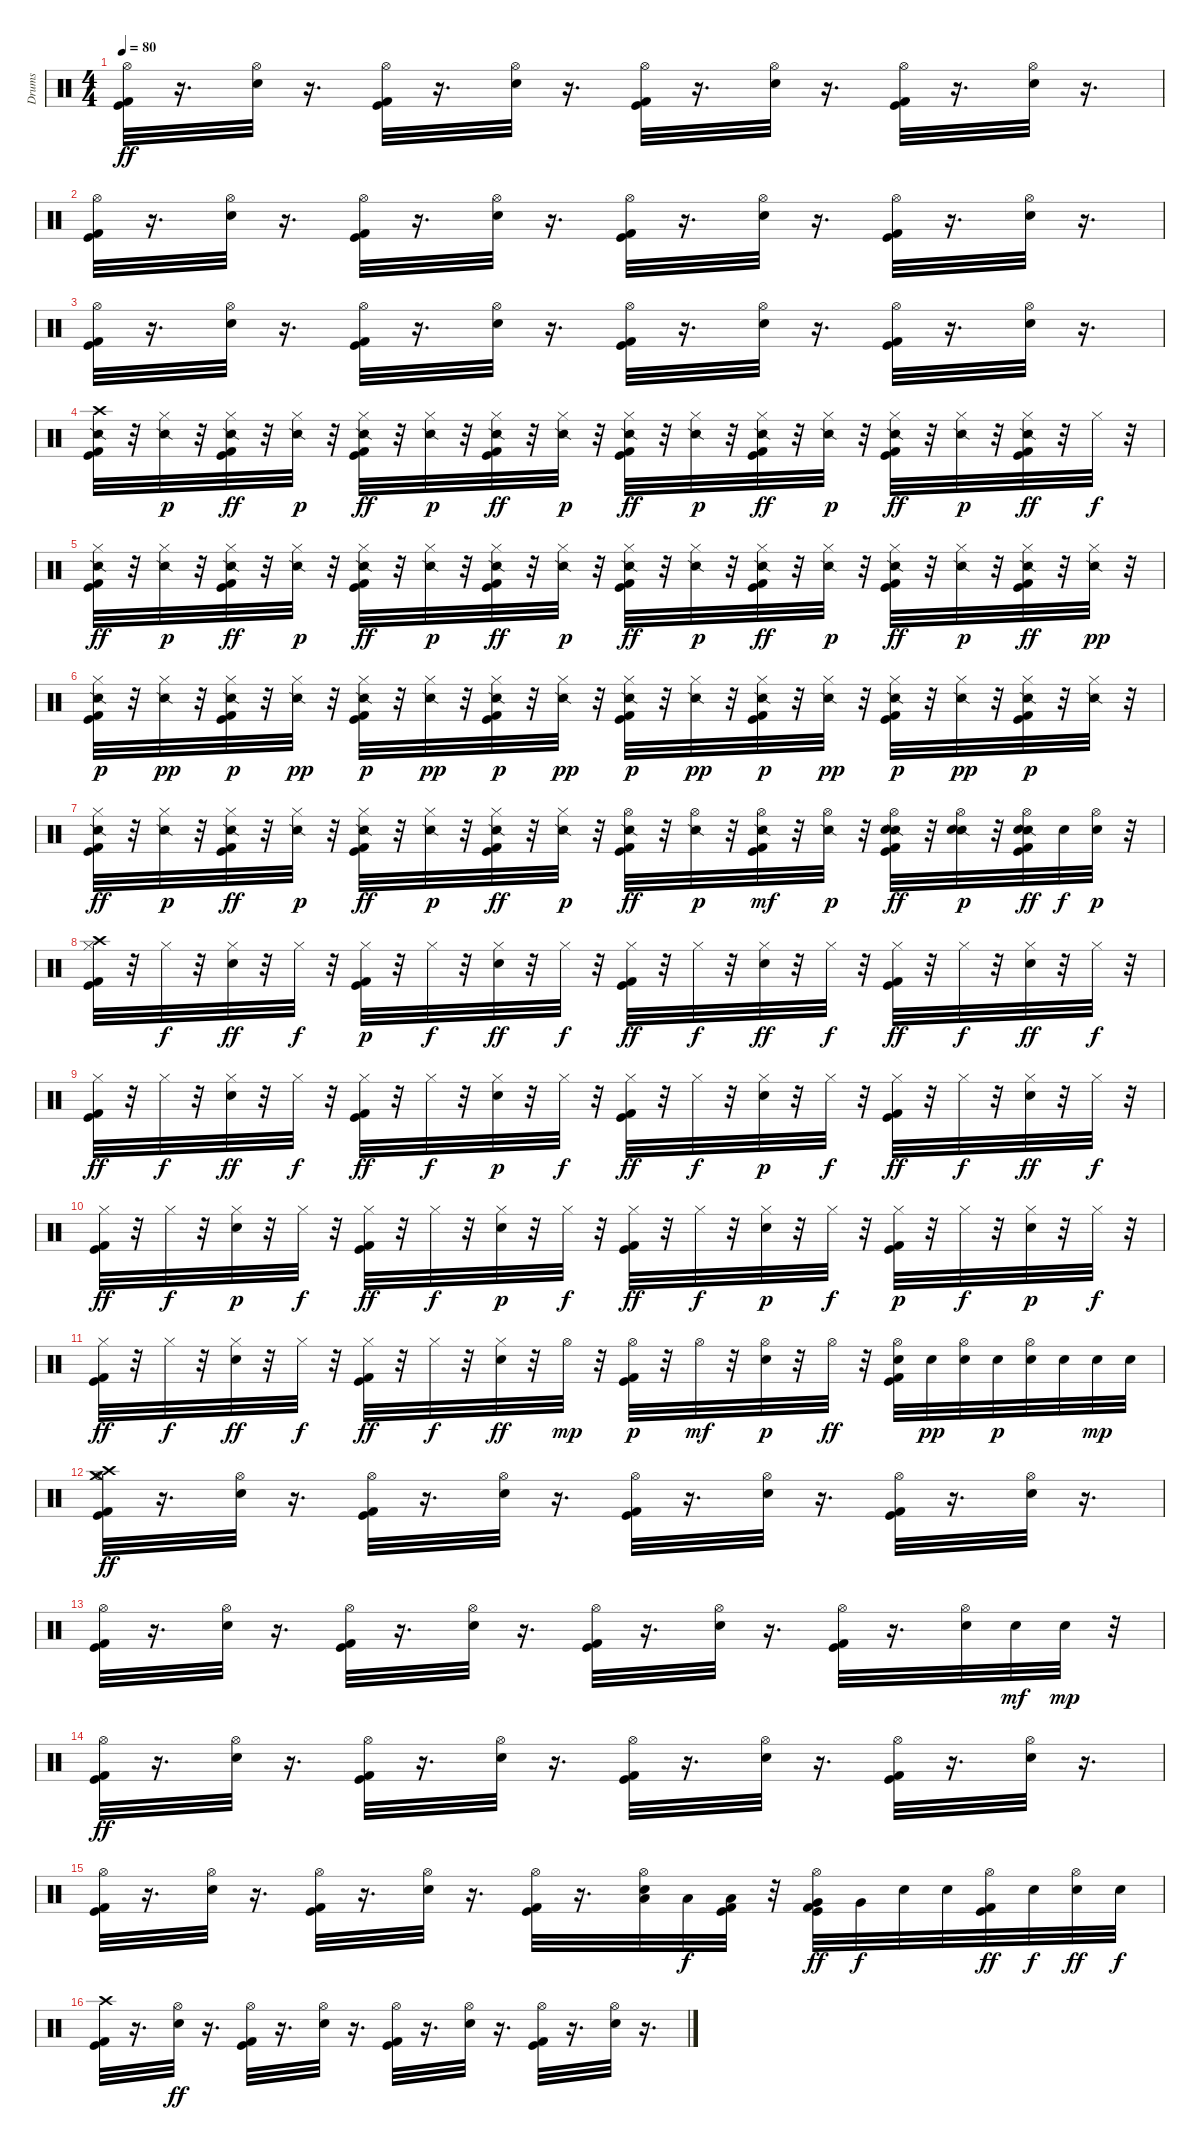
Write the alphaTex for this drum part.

\track ("Drums" "Drums") {instrument percussion}
\staff {score}
\articulation defaults
\ts (4 4)
\tempo 80
\clef neutral
\ks c
("Kick (hit)" "Hi-Hat (open)" "Kick (hit) 2").32{dy ff} r.16{d} ("Hi-Hat (open)" "Electric Snare (hit)").32 r.16{d} ("Hi-Hat (open)" "Kick (hit) 2" "Kick (hit)").32 r.16{d} ("Hi-Hat (open)" "Electric Snare (hit)").32 r.16{d} ("Kick (hit)" "Hi-Hat (open)" "Kick (hit) 2").32 r.16{d} ("Hi-Hat (open)" "Electric Snare (hit)").32 r.16{d} ("Kick (hit) 2" "Kick (hit)" "Hi-Hat (open)").32 r.16{d} ("Hi-Hat (open)" "Electric Snare (hit)").32 r.16{d} |
("Kick (hit)" "Hi-Hat (open)" "Kick (hit) 2").32 r.16{d} ("Hi-Hat (open)" "Electric Snare (hit)").32 r.16{d} ("Hi-Hat (open)" "Kick (hit) 2" "Kick (hit)").32 r.16{d} ("Hi-Hat (open)" "Electric Snare (hit)").32 r.16{d} ("Kick (hit)" "Hi-Hat (open)" "Kick (hit) 2").32 r.16{d} ("Hi-Hat (open)" "Electric Snare (hit)").32 r.16{d} ("Kick (hit) 2" "Kick (hit)" "Hi-Hat (open)").32 r.16{d} ("Hi-Hat (open)" "Electric Snare (hit)").32 r.16{d} |
("Kick (hit)" "Hi-Hat (open)" "Kick (hit) 2").32 r.16{d} ("Hi-Hat (open)" "Electric Snare (hit)").32 r.16{d} ("Hi-Hat (open)" "Kick (hit) 2" "Kick (hit)").32 r.16{d} ("Hi-Hat (open)" "Electric Snare (hit)").32 r.16{d} ("Kick (hit)" "Hi-Hat (open)" "Kick (hit) 2").32 r.16{d} ("Hi-Hat (open)" "Electric Snare (hit)").32 r.16{d} ("Kick (hit) 2" "Kick (hit)" "Hi-Hat (open)").32 r.16{d} ("Hi-Hat (open)" "Electric Snare (hit)").32 r.16{d} |
("Snare (side stick) 2" "Crash high (hit)" "Kick (hit)" "Kick (hit) 2").32 r.32 ("Snare (side stick) 2" "Hi-Hat (closed)").32{dy p} r.32 ("Snare (side stick) 2" "Kick (hit)" "Kick (hit) 2" "Hi-Hat (closed)").32{dy ff} r.32 ("Snare (side stick) 2" "Hi-Hat (closed)").32{dy p} r.32 ("Snare (side stick) 2" "Kick (hit)" "Hi-Hat (closed)" "Kick (hit) 2").32{dy ff} r.32 ("Snare (side stick) 2" "Hi-Hat (closed)").32{dy p} r.32 ("Snare (side stick) 2" "Kick (hit) 2" "Kick (hit)" "Hi-Hat (closed)").32{dy ff} r.32 ("Snare (side stick) 2" "Hi-Hat (closed)").32{dy p} r.32 ("Snare (side stick) 2" "Kick (hit)" "Hi-Hat (closed)" "Kick (hit) 2").32{dy ff} r.32 ("Snare (side stick) 2" "Hi-Hat (closed)").32{dy p} r.32 ("Snare (side stick) 2" "Kick (hit)" "Kick (hit) 2" "Hi-Hat (closed)").32{dy ff} r.32 ("Snare (side stick) 2" "Hi-Hat (closed)").32{dy p} r.32 ("Snare (side stick) 2" "Kick (hit) 2" "Hi-Hat (closed)" "Kick (hit)").32{dy ff} r.32 ("Snare (side stick) 2" "Hi-Hat (closed)").32{dy p} r.32 ("Snare (side stick) 2" "Kick (hit) 2" "Kick (hit)" "Hi-Hat (closed)").32{dy ff} r.32 "Hi-Hat (closed)".32{dy f} r.32 |
("Snare (side stick) 2" "Hi-Hat (closed)" "Kick (hit)" "Kick (hit) 2").32{dy ff} r.32 ("Snare (side stick) 2" "Hi-Hat (closed)").32{dy p} r.32 ("Snare (side stick) 2" "Hi-Hat (closed)" "Kick (hit)" "Kick (hit) 2").32{dy ff} r.32 ("Snare (side stick) 2" "Hi-Hat (closed)").32{dy p} r.32 ("Snare (side stick) 2" "Kick (hit)" "Hi-Hat (closed)" "Kick (hit) 2").32{dy ff} r.32 ("Snare (side stick) 2" "Hi-Hat (closed)").32{dy p} r.32 ("Snare (side stick) 2" "Kick (hit) 2" "Kick (hit)" "Hi-Hat (closed)").32{dy ff} r.32 ("Snare (side stick) 2" "Hi-Hat (closed)").32{dy p} r.32 ("Snare (side stick) 2" "Kick (hit)" "Hi-Hat (closed)" "Kick (hit) 2").32{dy ff} r.32 ("Snare (side stick) 2" "Hi-Hat (closed)").32{dy p} r.32 ("Snare (side stick) 2" "Hi-Hat (closed)" "Kick (hit)" "Kick (hit) 2").32{dy ff} r.32 ("Snare (side stick) 2" "Hi-Hat (closed)").32{dy p} r.32 ("Snare (side stick) 2" "Kick (hit)" "Kick (hit) 2" "Hi-Hat (closed)").32{dy ff} r.32 ("Snare (side stick) 2" "Hi-Hat (closed)").32{dy p} r.32 ("Snare (side stick) 2" "Kick (hit) 2" "Hi-Hat (closed)" "Kick (hit)").32{dy ff} r.32 ("Snare (side stick) 2" "Hi-Hat (closed)").32{dy pp} r.32 |
("Hi-Hat (closed)" "Kick (hit)" "Kick (hit) 2" "Snare (side stick) 2").32{dy p} r.32 ("Hi-Hat (closed)" "Snare (side stick) 2").32{dy pp} r.32 ("Hi-Hat (closed)" "Kick (hit)" "Kick (hit) 2" "Snare (side stick) 2").32{dy p} r.32 ("Hi-Hat (closed)" "Snare (side stick) 2").32{dy pp} r.32 ("Kick (hit)" "Hi-Hat (closed)" "Kick (hit) 2" "Snare (side stick) 2").32{dy p} r.32 ("Hi-Hat (closed)" "Snare (side stick) 2").32{dy pp} r.32 ("Kick (hit) 2" "Kick (hit)" "Hi-Hat (closed)" "Snare (side stick) 2").32{dy p} r.32 ("Hi-Hat (closed)" "Snare (side stick) 2").32{dy pp} r.32 ("Kick (hit)" "Hi-Hat (closed)" "Kick (hit) 2" "Snare (side stick) 2").32{dy p} r.32 ("Hi-Hat (closed)" "Snare (side stick) 2").32{dy pp} r.32 ("Hi-Hat (closed)" "Kick (hit)" "Kick (hit) 2" "Snare (side stick) 2").32{dy p} r.32 ("Hi-Hat (closed)" "Snare (side stick) 2").32{dy pp} r.32 ("Kick (hit)" "Kick (hit) 2" "Hi-Hat (closed)" "Snare (side stick) 2").32{dy p} r.32 ("Hi-Hat (closed)" "Snare (side stick) 2").32{dy pp} r.32 ("Kick (hit) 2" "Kick (hit)" "Hi-Hat (closed)" "Snare (side stick) 2").32{dy p} r.32 ("Snare (side stick) 2" "Hi-Hat (closed)").32 r.32 |
("Snare (side stick) 2" "Hi-Hat (closed)" "Kick (hit)" "Kick (hit) 2").32{dy ff} r.32 ("Snare (side stick) 2" "Hi-Hat (closed)").32{dy p} r.32 ("Snare (side stick) 2" "Kick (hit)" "Kick (hit) 2" "Hi-Hat (closed)").32{dy ff} r.32 ("Snare (side stick) 2" "Hi-Hat (closed)").32{dy p} r.32 ("Snare (side stick) 2" "Kick (hit) 2" "Kick (hit)" "Hi-Hat (closed)").32{dy ff} r.32 ("Snare (side stick) 2" "Hi-Hat (closed)").32{dy p} r.32 ("Snare (side stick) 2" "Hi-Hat (closed)" "Kick (hit)" "Kick (hit) 2").32{dy ff} r.32 ("Snare (side stick) 2" "Hi-Hat (closed)").32{dy p} r.32 ("Snare (side stick) 2" "Kick (hit)" "Hi-Hat (open)" "Kick (hit) 2").32{dy ff} r.32 ("Snare (side stick) 2" "Hi-Hat (open)").32{dy p} r.32 ("Snare (side stick) 2" "Kick (hit) 2" "Kick (hit)" "Hi-Hat (open)").32{dy mf} r.32 ("Snare (side stick) 2" "Hi-Hat (open)").32{dy p} r.32 ("Snare (side stick) 2" "Kick (hit) 2" "Kick (hit)" "Snare (hit) 2" "Hi-Hat (open)").32{dy ff} r.32 ("Snare (side stick) 2" "Snare (hit) 2" "Hi-Hat (open)").32{dy p} r.32 ("Snare (side stick) 2" "Hi-Hat (open)" "Snare (hit) 2" "Kick (hit)" "Kick (hit) 2").32{dy ff} "Snare (hit) 2".32{dy f} ("Snare (hit) 2" "Hi-Hat (open)").32{dy p} r.32 |
("Kick (hit) 2" "Kick (hit)" "Crash high (hit)" "Hi-Hat (closed)").32 r.32 "Hi-Hat (closed)".32{dy f} r.32 ("Hi-Hat (closed)" "Snare (hit) 2").32{dy ff} r.32 "Hi-Hat (closed)".32{dy f} r.32 ("Kick (hit) 2" "Kick (hit)" "Hi-Hat (closed)").32{dy p} r.32 "Hi-Hat (closed)".32{dy f} r.32 ("Hi-Hat (closed)" "Snare (hit) 2").32{dy ff} r.32 "Hi-Hat (closed)".32{dy f} r.32 ("Hi-Hat (closed)" "Kick (hit)" "Kick (hit) 2").32{dy ff} r.32 "Hi-Hat (closed)".32{dy f} r.32 ("Hi-Hat (closed)" "Snare (hit) 2").32{dy ff} r.32 "Hi-Hat (closed)".32{dy f} r.32 ("Kick (hit)" "Hi-Hat (closed)" "Kick (hit) 2").32{dy ff} r.32 "Hi-Hat (closed)".32{dy f} r.32 ("Snare (hit) 2" "Hi-Hat (closed)").32{dy ff} r.32 "Hi-Hat (closed)".32{dy f} r.32 |
("Kick (hit) 2" "Hi-Hat (closed)" "Kick (hit)").32{dy ff} r.32 "Hi-Hat (closed)".32{dy f} r.32 ("Hi-Hat (closed)" "Snare (hit) 2").32{dy ff} r.32 "Hi-Hat (closed)".32{dy f} r.32 ("Kick (hit)" "Hi-Hat (closed)" "Kick (hit) 2").32{dy ff} r.32 "Hi-Hat (closed)".32{dy f} r.32 ("Snare (hit) 2" "Hi-Hat (closed)").32{dy p} r.32 "Hi-Hat (closed)".32{dy f} r.32 ("Hi-Hat (closed)" "Kick (hit) 2" "Kick (hit)").32{dy ff} r.32 "Hi-Hat (closed)".32{dy f} r.32 ("Snare (hit) 2" "Hi-Hat (closed)").32{dy p} r.32 "Hi-Hat (closed)".32{dy f} r.32 ("Kick (hit)" "Hi-Hat (closed)" "Kick (hit) 2").32{dy ff} r.32 "Hi-Hat (closed)".32{dy f} r.32 ("Hi-Hat (closed)" "Snare (hit) 2").32{dy ff} r.32 "Hi-Hat (closed)".32{dy f} r.32 |
("Kick (hit) 2" "Hi-Hat (closed)" "Kick (hit)").32{dy ff} r.32 "Hi-Hat (closed)".32{dy f} r.32 ("Snare (hit) 2" "Hi-Hat (closed)").32{dy p} r.32 "Hi-Hat (closed)".32{dy f} r.32 ("Hi-Hat (closed)" "Kick (hit) 2" "Kick (hit)").32{dy ff} r.32 "Hi-Hat (closed)".32{dy f} r.32 ("Snare (hit) 2" "Hi-Hat (closed)").32{dy p} r.32 "Hi-Hat (closed)".32{dy f} r.32 ("Kick (hit) 2" "Hi-Hat (closed)" "Kick (hit)").32{dy ff} r.32 "Hi-Hat (closed)".32{dy f} r.32 ("Snare (hit) 2" "Hi-Hat (closed)").32{dy p} r.32 "Hi-Hat (closed)".32{dy f} r.32 ("Kick (hit) 2" "Kick (hit)" "Hi-Hat (closed)").32{dy p} r.32 "Hi-Hat (closed)".32{dy f} r.32 ("Snare (hit) 2" "Hi-Hat (closed)").32{dy p} r.32 "Hi-Hat (closed)".32{dy f} r.32 |
("Kick (hit)" "Hi-Hat (closed)" "Kick (hit) 2").32{dy ff} r.32 "Hi-Hat (closed)".32{dy f} r.32 ("Hi-Hat (closed)" "Snare (hit) 2").32{dy ff} r.32 "Hi-Hat (closed)".32{dy f} r.32 ("Kick (hit)" "Hi-Hat (closed)" "Kick (hit) 2").32{dy ff} r.32 "Hi-Hat (closed)".32{dy f} r.32 ("Hi-Hat (closed)" "Snare (hit) 2").32{dy ff} r.32 "Hi-Hat (open)".32{dy mp} r.32 ("Kick (hit) 2" "Kick (hit)" "Hi-Hat (open)").32{dy p} r.32 "Hi-Hat (open)".32{dy mf} r.32 ("Snare (hit) 2" "Hi-Hat (open)").32{dy p} r.32 "Hi-Hat (open)".32{dy ff} r.32 ("Hi-Hat (open)" "Kick (hit)" "Snare (hit) 2" "Kick (hit) 2").32 "Snare (hit) 2".32{dy pp} ("Hi-Hat (open)" "Snare (hit) 2").32 "Snare (hit) 2".32{dy p} ("Snare (hit) 2" "Hi-Hat (open)").32 "Snare (hit) 2".32 "Snare (hit) 2".32{dy mp} "Snare (hit) 2".32 |
("Crash medium (hit)" "Kick (hit)" "Crash high (hit)" "Hi-Hat (open)" "Kick (hit) 2").32{dy ff} r.16{d} ("Hi-Hat (open)" "Electric Snare (hit)").32 r.16{d} ("Kick (hit)" "Kick (hit) 2" "Hi-Hat (open)").32 r.16{d} ("Hi-Hat (open)" "Electric Snare (hit)").32 r.16{d} ("Kick (hit)" "Hi-Hat (open)" "Kick (hit) 2").32 r.16{d} ("Hi-Hat (open)" "Electric Snare (hit)").32 r.16{d} ("Kick (hit) 2" "Kick (hit)" "Hi-Hat (open)").32 r.16{d} ("Hi-Hat (open)" "Electric Snare (hit)").32 r.16{d} |
("Kick (hit)" "Hi-Hat (open)" "Kick (hit) 2").32 r.16{d} ("Hi-Hat (open)" "Electric Snare (hit)").32 r.16{d} ("Hi-Hat (open)" "Kick (hit) 2" "Kick (hit)").32 r.16{d} ("Hi-Hat (open)" "Electric Snare (hit)").32 r.16{d} ("Kick (hit)" "Hi-Hat (open)" "Kick (hit) 2").32 r.16{d} ("Hi-Hat (open)" "Electric Snare (hit)").32 r.16{d} ("Kick (hit) 2" "Kick (hit)" "Hi-Hat (open)").32 r.16{d} ("Hi-Hat (open)" "Electric Snare (hit)").32 "Electric Snare (hit)".32{dy mf} "Electric Snare (hit)".32{dy mp} r.32 |
("Kick (hit)" "Hi-Hat (open)" "Kick (hit) 2").32{dy ff} r.16{d} ("Hi-Hat (open)" "Electric Snare (hit)").32 r.16{d} ("Hi-Hat (open)" "Kick (hit) 2" "Kick (hit)").32 r.16{d} ("Hi-Hat (open)" "Electric Snare (hit)").32 r.16{d} ("Kick (hit)" "Hi-Hat (open)" "Kick (hit) 2").32 r.16{d} ("Hi-Hat (open)" "Electric Snare (hit)").32 r.16{d} ("Kick (hit) 2" "Kick (hit)" "Hi-Hat (open)").32 r.16{d} ("Hi-Hat (open)" "Electric Snare (hit)").32 r.16{d} |
("Kick (hit)" "Hi-Hat (open)" "Kick (hit) 2").32 r.16{d} ("Electric Snare (hit)" "Hi-Hat (open)").32 r.16{d} ("Kick (hit)" "Hi-Hat (open)" "Kick (hit) 2").32 r.16{d} ("Electric Snare (hit)" "Hi-Hat (open)").32 r.16{d} ("Hi-Hat (open)" "Kick (hit)" "Kick (hit) 2").32 r.16{d} ("Electric Snare (hit)" "Low Tom (hit)" "Hi-Hat (open)").32 "Low Tom (hit)".32{dy f} ("Low Tom (hit)" "Kick (hit)" "Kick (hit) 2").32 r.32 ("Very Low Tom (hit)" "Hi-Hat (open)" "Kick (hit)" "Kick (hit) 2").32{dy ff} "Very Low Tom (hit)".32{dy f} "Electric Snare (hit)".32 "Electric Snare (hit)".32 ("Kick (hit) 2" "Kick (hit)" "Hi-Hat (open)").32{dy ff} "Electric Snare (hit)".32{dy f} ("Electric Snare (hit)" "Hi-Hat (open)").32{dy ff} "Electric Snare (hit)".32{dy f} |
("Kick (hit)" "Crash high (hit)" "Kick (hit) 2").32 r.16{d} ("Hi-Hat (open)" "Electric Snare (hit)").32{dy ff} r.16{d} ("Hi-Hat (open)" "Kick (hit) 2" "Kick (hit)").32 r.16{d} ("Hi-Hat (open)" "Electric Snare (hit)").32 r.16{d} ("Kick (hit)" "Hi-Hat (open)" "Kick (hit) 2").32 r.16{d} ("Hi-Hat (open)" "Electric Snare (hit)").32 r.16{d} ("Kick (hit) 2" "Kick (hit)" "Hi-Hat (open)").32 r.16{d} ("Hi-Hat (open)" "Electric Snare (hit)").32 r.16{d}
